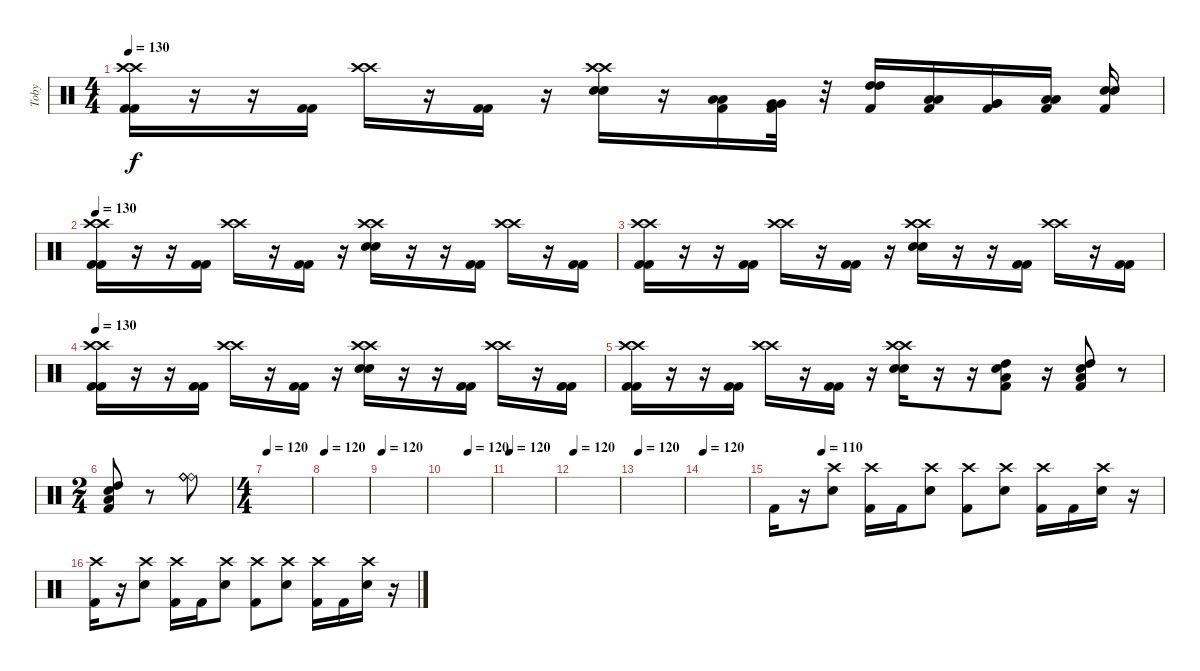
\track ("Toby" "Toby") {instrument percussion}
\staff {score}
\articulation defaults
\ts (4 4)
\tempo 130
\clef neutral
\ks c
("Crash high (hit)" "Crash high (hit)" "Kick (hit) 2" "Kick (hit) 2").16{dy f} r.16 r.16 ("Kick (hit) 2" "Kick (hit) 2").16 ("Crash high (hit)" "Crash high (hit)").16 r.16 ("Kick (hit) 2" "Kick (hit) 2").16 r.16 ("Crash high (hit)" "Crash high (hit)" "Electric Snare (hit)" "Electric Snare (hit)").16 r.16 ("Low Tom (hit)" "Low Tom (hit)" "Kick (hit) 2").16 ("Very Low Tom (hit)" "Very Low Tom (hit)" "Kick (hit) 2").32 r.32 ("High Tom (hit)" "High Tom (hit)" "Kick (hit) 2").16 ("Low Tom (hit)" "Low Tom (hit)" "Kick (hit) 2").16 ("Very Low Tom (hit)" "Very Low Tom (hit)" "Kick (hit) 2").16 ("Low Tom (hit)" "Low Tom (hit)" "Kick (hit) 2").16 ("Electric Snare (hit)" "Electric Snare (hit)" "Kick (hit) 2").16 |
\tempo 130
("Crash high (hit)" "Crash high (hit)" "Kick (hit) 2" "Kick (hit) 2").16 r.16 r.16 ("Kick (hit) 2" "Kick (hit) 2").16 ("Crash high (hit)" "Crash high (hit)").16 r.16 ("Kick (hit) 2" "Kick (hit) 2").16 r.16 ("Crash high (hit)" "Crash high (hit)" "Electric Snare (hit)" "Electric Snare (hit)").16 r.16 r.16 ("Kick (hit) 2" "Kick (hit) 2").16 ("Crash high (hit)" "Crash high (hit)").16 r.16 ("Kick (hit) 2" "Kick (hit) 2").16 |
("Crash high (hit)" "Crash high (hit)" "Kick (hit) 2" "Kick (hit) 2").16 r.16 r.16 ("Kick (hit) 2" "Kick (hit) 2").16 ("Crash high (hit)" "Crash high (hit)").16 r.16 ("Kick (hit) 2" "Kick (hit) 2").16 r.16 ("Crash high (hit)" "Crash high (hit)" "Electric Snare (hit)" "Electric Snare (hit)").16 r.16 r.16 ("Kick (hit) 2" "Kick (hit) 2").16 ("Crash high (hit)" "Crash high (hit)").16 r.16 ("Kick (hit) 2" "Kick (hit) 2").16 |
\tempo 130
("Crash high (hit)" "Crash high (hit)" "Kick (hit) 2" "Kick (hit) 2").16 r.16 r.16 ("Kick (hit) 2" "Kick (hit) 2").16 ("Crash high (hit)" "Crash high (hit)").16 r.16 ("Kick (hit) 2" "Kick (hit) 2").16 r.16 ("Crash high (hit)" "Crash high (hit)" "Electric Snare (hit)" "Electric Snare (hit)").16 r.16 r.16 ("Kick (hit) 2" "Kick (hit) 2").16 ("Crash high (hit)" "Crash high (hit)").16 r.16 ("Kick (hit) 2" "Kick (hit) 2").16 |
("Crash high (hit)" "Crash high (hit)" "Kick (hit) 2" "Kick (hit) 2").16 r.16 r.16 ("Kick (hit) 2" "Kick (hit) 2").16 ("Crash high (hit)" "Crash high (hit)").16 r.16 ("Kick (hit) 2" "Kick (hit) 2").16 r.16 ("Crash high (hit)" "Crash high (hit)" "Electric Snare (hit)" "Electric Snare (hit)").16 r.16 r.16 ("Electric Snare (hit)" "High Tom (hit)" "Kick (hit) 2" "Low Tom (hit)").8 r.16 ("Electric Snare (hit)" "High Tom (hit)" "Kick (hit) 2" "Low Tom (hit)").8 r.8 |
\ts (2 4)
("Electric Snare (hit)" "High Tom (hit)" "Kick (hit) 2" "Low Tom (hit)").8 r.8 ("Ride (bell)" "Ride (bell)" "Ride (bell)" "Ride (bell)").8 |
\ts (4 4)
\tempo 120
|
\tempo 120
|
\tempo 120
|
\tempo (120 0.5)
|
\tempo 120
|
\tempo 120
|
\tempo 120
|
\tempo 120
|
\tempo (110 0.125)
"Kick (hit) 2".16 r.16 ("Crash high (hit)" "Electric Snare (hit)").8 ("Crash high (hit)" "Kick (hit) 2").16 "Kick (hit) 2".16 ("Crash high (hit)" "Electric Snare (hit)").8 ("Crash high (hit)" "Kick (hit) 2").8 ("Crash high (hit)" "Electric Snare (hit)").8 ("Crash high (hit)" "Kick (hit) 2").16 "Kick (hit) 2".16 ("Crash high (hit)" "Electric Snare (hit)").16 r.16 |
("Crash high (hit)" "Kick (hit) 2").16 r.16 ("Crash high (hit)" "Electric Snare (hit)").8 ("Crash high (hit)" "Kick (hit) 2").16 "Kick (hit) 2".16 ("Crash high (hit)" "Electric Snare (hit)").8 ("Crash high (hit)" "Kick (hit) 2").8 ("Crash high (hit)" "Electric Snare (hit)").8 ("Crash high (hit)" "Kick (hit) 2").16 "Kick (hit) 2".16 ("Crash high (hit)" "Electric Snare (hit)").16 r.16
